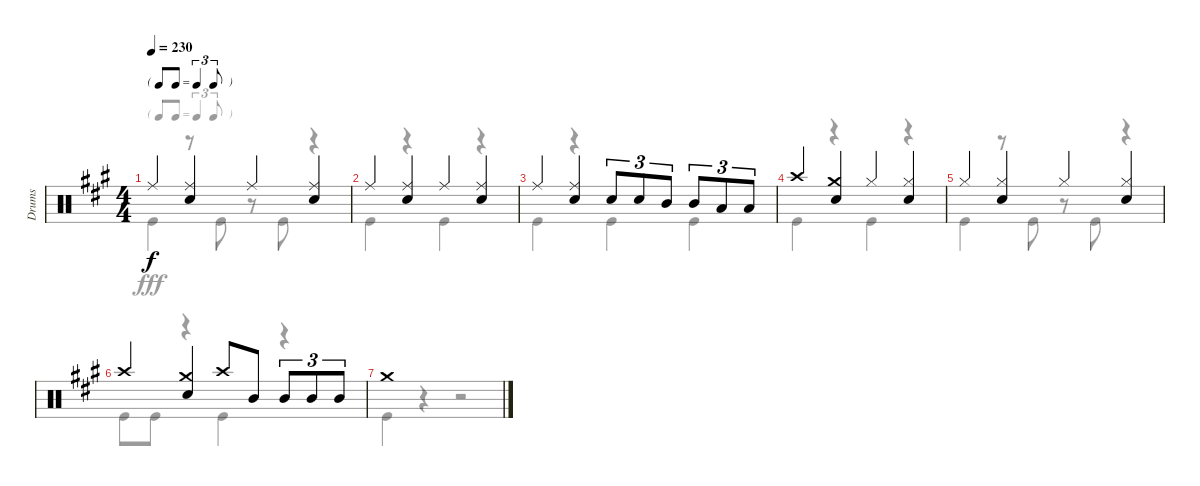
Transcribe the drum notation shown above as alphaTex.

\track ("Drums" "Drums") {instrument percussion}
\staff {score}
\articulation defaults
\voice
\ts (4 4)
\tf triplet8th
\tempo 230
\clef neutral
\ks a "Ride (middle)".4{dy f}
("Ride (middle)" "Snare (hit) 2").4 "Ride (middle)".4 ("Ride (middle)" "Snare (hit) 2").4 |
"Ride (middle)".4 ("Ride (middle)" "Snare (hit) 2").4 "Ride (middle)".4 ("Ride (middle)" "Snare (hit) 2").4 |
"Ride (middle)".4 ("Ride (middle)" "Snare (hit) 2").4 "Snare (hit) 2".8{tu (3 2)} "Snare (hit) 2".8{tu (3 2)} "Mid Tom (hit)".8{tu (3 2)} "Mid Tom (hit)".8{tu (3 2)} "Low Tom (hit)".8{tu (3 2)} "Low Tom (hit)".8{tu (3 2)} |
"Crash high (hit)".4 ("Crash medium (hit)" "Snare (hit) 2").4 "Hi-Hat (closed)".4 ("Hi-Hat (closed)" "Snare (hit) 2").4 |
"Hi-Hat (closed)".4 ("Hi-Hat (closed)" "Snare (hit) 2").4 "Hi-Hat (closed)".4 ("Hi-Hat (closed)" "Snare (hit) 2").4 |
"Crash high (hit)".4 ("Crash medium (hit)" "Snare (hit) 2").4 "Crash high (hit)".8 "Mid Tom (hit)".8 "Mid Tom (hit)".8{tu (3 2)} "Mid Tom (hit)".8{tu (3 2)} "Mid Tom (hit)".8{tu (3 2)} |
"Crash medium (hit)".1
\voice
\clef neutral
\ottava regular
\simile none
\ks a "Kick (hit)".4{dy fff}
r.8 "Kick (hit)".8 r.8 "Kick (hit)".8 r.4 |
"Kick (hit)".4 r.4 "Kick (hit)".4 r.4 |
"Kick (hit)".4 r.4 "Kick (hit)".4 "Kick (hit)".4 |
"Kick (hit)".4 r.4 "Kick (hit)".4 r.4 |
"Kick (hit)".4 r.8 "Kick (hit)".8 r.8 "Kick (hit)".8 r.4 |
"Kick (hit)".8 "Kick (hit)".8 r.4 "Kick (hit)".4 r.4 |
"Kick (hit)".4 r.4 r.2
